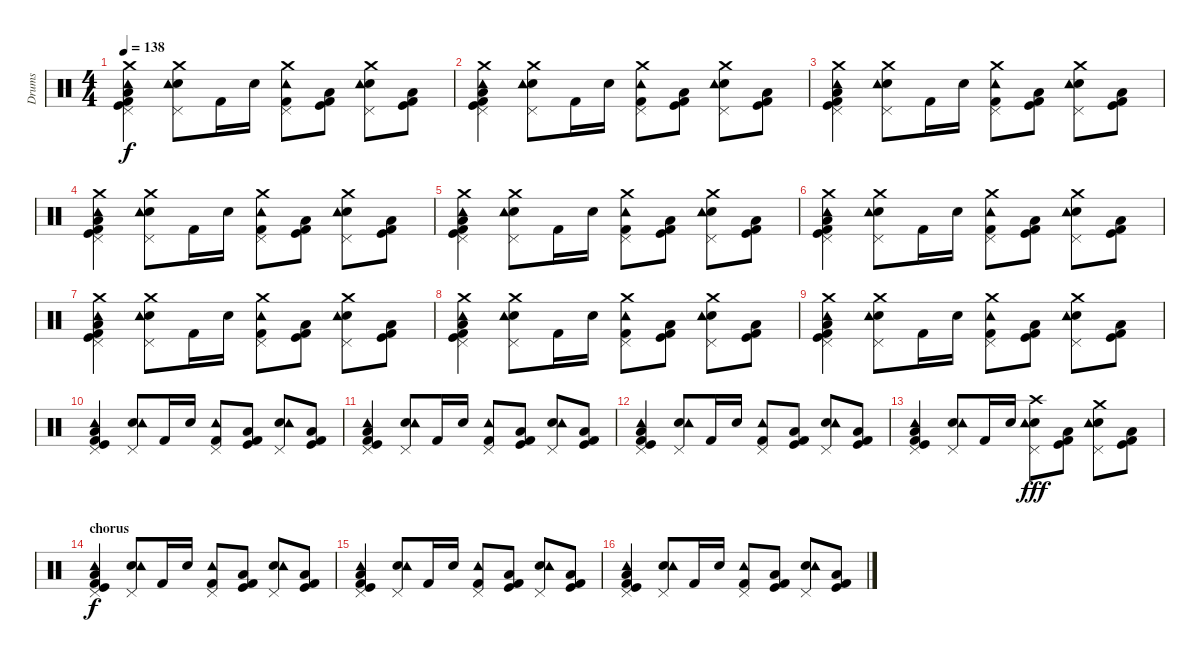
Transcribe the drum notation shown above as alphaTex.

\track ("Drums" "Drums") {instrument percussion}
\staff {score}
\articulation defaults
\ts (4 4)
\tempo 138
\clef neutral
\ks c
("Crash medium (hit)" "Pedal Hi-Hat (hit)" "Kick (hit) 2" "Kick (hit)" "Low Floor Tom (hit)" "Tambourine (hit)").4{dy f} ("Crash medium (hit)" "Pedal Hi-Hat (hit)" "Electric Snare (hit)" "Tambourine (hit)").8 "Kick (hit) 2".16 "Electric Snare (hit)".16 ("Crash medium (hit)" "Pedal Hi-Hat (hit)" "Kick (hit) 2" "Tambourine (hit)").8 ("Kick (hit) 2" "Kick (hit)" "Low Floor Tom (hit)").8 ("Crash medium (hit)" "Pedal Hi-Hat (hit)" "Electric Snare (hit)" "Tambourine (hit)").8 ("Kick (hit) 2" "Low Floor Tom (hit)" "Kick (hit)").8 |
("Crash medium (hit)" "Pedal Hi-Hat (hit)" "Kick (hit) 2" "Kick (hit)" "Low Floor Tom (hit)" "Tambourine (hit)").4 ("Crash medium (hit)" "Pedal Hi-Hat (hit)" "Electric Snare (hit)" "Tambourine (hit)").8 "Kick (hit) 2".16 "Electric Snare (hit)".16 ("Crash medium (hit)" "Pedal Hi-Hat (hit)" "Kick (hit) 2" "Tambourine (hit)").8 ("Kick (hit) 2" "Kick (hit)" "Low Floor Tom (hit)").8 ("Crash medium (hit)" "Pedal Hi-Hat (hit)" "Electric Snare (hit)" "Tambourine (hit)").8 ("Kick (hit) 2" "Low Floor Tom (hit)" "Kick (hit)").8 |
("Crash medium (hit)" "Pedal Hi-Hat (hit)" "Kick (hit) 2" "Kick (hit)" "Low Floor Tom (hit)" "Tambourine (hit)").4 ("Crash medium (hit)" "Pedal Hi-Hat (hit)" "Electric Snare (hit)" "Tambourine (hit)").8 "Kick (hit) 2".16 "Electric Snare (hit)".16 ("Crash medium (hit)" "Pedal Hi-Hat (hit)" "Kick (hit) 2" "Tambourine (hit)").8 ("Kick (hit) 2" "Kick (hit)" "Low Floor Tom (hit)").8 ("Crash medium (hit)" "Pedal Hi-Hat (hit)" "Electric Snare (hit)" "Tambourine (hit)").8 ("Kick (hit) 2" "Low Floor Tom (hit)" "Kick (hit)").8 |
("Crash medium (hit)" "Pedal Hi-Hat (hit)" "Kick (hit) 2" "Kick (hit)" "Low Floor Tom (hit)" "Tambourine (hit)").4 ("Crash medium (hit)" "Pedal Hi-Hat (hit)" "Electric Snare (hit)" "Tambourine (hit)").8 "Kick (hit) 2".16 "Electric Snare (hit)".16 ("Crash medium (hit)" "Pedal Hi-Hat (hit)" "Kick (hit) 2" "Tambourine (hit)").8 ("Kick (hit) 2" "Kick (hit)" "Low Floor Tom (hit)").8 ("Crash medium (hit)" "Pedal Hi-Hat (hit)" "Electric Snare (hit)" "Tambourine (hit)").8 ("Kick (hit) 2" "Low Floor Tom (hit)" "Kick (hit)").8 |
("Crash medium (hit)" "Pedal Hi-Hat (hit)" "Kick (hit) 2" "Kick (hit)" "Low Floor Tom (hit)" "Tambourine (hit)").4 ("Crash medium (hit)" "Pedal Hi-Hat (hit)" "Electric Snare (hit)" "Tambourine (hit)").8 "Kick (hit) 2".16 "Electric Snare (hit)".16 ("Crash medium (hit)" "Pedal Hi-Hat (hit)" "Kick (hit) 2" "Tambourine (hit)").8 ("Kick (hit) 2" "Kick (hit)" "Low Floor Tom (hit)").8 ("Crash medium (hit)" "Pedal Hi-Hat (hit)" "Electric Snare (hit)" "Tambourine (hit)").8 ("Kick (hit) 2" "Low Floor Tom (hit)" "Kick (hit)").8 |
("Crash medium (hit)" "Pedal Hi-Hat (hit)" "Kick (hit) 2" "Kick (hit)" "Low Floor Tom (hit)" "Tambourine (hit)").4 ("Crash medium (hit)" "Pedal Hi-Hat (hit)" "Electric Snare (hit)" "Tambourine (hit)").8 "Kick (hit) 2".16 "Electric Snare (hit)".16 ("Crash medium (hit)" "Pedal Hi-Hat (hit)" "Kick (hit) 2" "Tambourine (hit)").8 ("Kick (hit) 2" "Kick (hit)" "Low Floor Tom (hit)").8 ("Crash medium (hit)" "Pedal Hi-Hat (hit)" "Electric Snare (hit)" "Tambourine (hit)").8 ("Kick (hit) 2" "Low Floor Tom (hit)" "Kick (hit)").8 |
("Crash medium (hit)" "Pedal Hi-Hat (hit)" "Kick (hit) 2" "Kick (hit)" "Low Floor Tom (hit)" "Tambourine (hit)").4 ("Crash medium (hit)" "Pedal Hi-Hat (hit)" "Electric Snare (hit)" "Tambourine (hit)").8 "Kick (hit) 2".16 "Electric Snare (hit)".16 ("Crash medium (hit)" "Pedal Hi-Hat (hit)" "Kick (hit) 2" "Tambourine (hit)").8 ("Kick (hit) 2" "Kick (hit)" "Low Floor Tom (hit)").8 ("Crash medium (hit)" "Pedal Hi-Hat (hit)" "Electric Snare (hit)" "Tambourine (hit)").8 ("Kick (hit) 2" "Low Floor Tom (hit)" "Kick (hit)").8 |
("Crash medium (hit)" "Pedal Hi-Hat (hit)" "Kick (hit) 2" "Kick (hit)" "Low Floor Tom (hit)" "Tambourine (hit)").4 ("Crash medium (hit)" "Pedal Hi-Hat (hit)" "Electric Snare (hit)" "Tambourine (hit)").8 "Kick (hit) 2".16 "Electric Snare (hit)".16 ("Crash medium (hit)" "Pedal Hi-Hat (hit)" "Kick (hit) 2" "Tambourine (hit)").8 ("Kick (hit) 2" "Kick (hit)" "Low Floor Tom (hit)").8 ("Crash medium (hit)" "Pedal Hi-Hat (hit)" "Electric Snare (hit)" "Tambourine (hit)").8 ("Kick (hit) 2" "Low Floor Tom (hit)" "Kick (hit)").8 |
("Crash medium (hit)" "Pedal Hi-Hat (hit)" "Kick (hit) 2" "Kick (hit)" "Low Floor Tom (hit)" "Tambourine (hit)").4 ("Crash medium (hit)" "Pedal Hi-Hat (hit)" "Electric Snare (hit)" "Tambourine (hit)").8 "Kick (hit) 2".16 "Electric Snare (hit)".16 ("Crash medium (hit)" "Pedal Hi-Hat (hit)" "Kick (hit) 2" "Tambourine (hit)").8 ("Kick (hit) 2" "Kick (hit)" "Low Floor Tom (hit)").8 ("Crash medium (hit)" "Pedal Hi-Hat (hit)" "Electric Snare (hit)" "Tambourine (hit)").8 ("Kick (hit) 2" "Low Floor Tom (hit)" "Kick (hit)").8 |
("Pedal Hi-Hat (hit)" "Kick (hit) 2" "Kick (hit)" "Low Floor Tom (hit)" "Tambourine (hit)").4 ("Pedal Hi-Hat (hit)" "Electric Snare (hit)" "Tambourine (hit)").8 "Kick (hit) 2".16 "Electric Snare (hit)".16 ("Pedal Hi-Hat (hit)" "Kick (hit) 2" "Tambourine (hit)").8 ("Kick (hit) 2" "Kick (hit)" "Low Floor Tom (hit)").8 ("Pedal Hi-Hat (hit)" "Electric Snare (hit)" "Tambourine (hit)").8 ("Kick (hit) 2" "Low Floor Tom (hit)" "Kick (hit)").8 |
("Pedal Hi-Hat (hit)" "Kick (hit) 2" "Kick (hit)" "Low Floor Tom (hit)" "Tambourine (hit)").4 ("Pedal Hi-Hat (hit)" "Electric Snare (hit)" "Tambourine (hit)").8 "Kick (hit) 2".16 "Electric Snare (hit)".16 ("Pedal Hi-Hat (hit)" "Kick (hit) 2" "Tambourine (hit)").8 ("Kick (hit) 2" "Kick (hit)" "Low Floor Tom (hit)").8 ("Pedal Hi-Hat (hit)" "Electric Snare (hit)" "Tambourine (hit)").8 ("Kick (hit) 2" "Low Floor Tom (hit)" "Kick (hit)").8 |
("Pedal Hi-Hat (hit)" "Kick (hit) 2" "Kick (hit)" "Low Floor Tom (hit)" "Tambourine (hit)").4 ("Pedal Hi-Hat (hit)" "Electric Snare (hit)" "Tambourine (hit)").8 "Kick (hit) 2".16 "Electric Snare (hit)".16 ("Pedal Hi-Hat (hit)" "Kick (hit) 2" "Tambourine (hit)").8 ("Kick (hit) 2" "Kick (hit)" "Low Floor Tom (hit)").8 ("Pedal Hi-Hat (hit)" "Electric Snare (hit)" "Tambourine (hit)").8 ("Kick (hit) 2" "Low Floor Tom (hit)" "Kick (hit)").8 |
("Pedal Hi-Hat (hit)" "Kick (hit) 2" "Kick (hit)" "Low Floor Tom (hit)" "Tambourine (hit)").4 ("Pedal Hi-Hat (hit)" "Electric Snare (hit)" "Tambourine (hit)").8 "Kick (hit) 2".16 "Electric Snare (hit)".16 ("Crash high (hit)" "Pedal Hi-Hat (hit)" "Electric Snare (hit)" "Tambourine (hit)").8{dy fff} ("Kick (hit) 2" "Kick (hit)" "Low Floor Tom (hit)").8 ("Crash medium (hit)" "Pedal Hi-Hat (hit)" "Electric Snare (hit)" "Tambourine (hit)").8 ("Kick (hit) 2" "Low Floor Tom (hit)" "Kick (hit)").8 |
\section ("" "chorus")
("Pedal Hi-Hat (hit)" "Kick (hit) 2" "Kick (hit)" "Low Floor Tom (hit)" "Tambourine (hit)").4{dy f} ("Pedal Hi-Hat (hit)" "Electric Snare (hit)" "Tambourine (hit)").8 "Kick (hit) 2".16 "Electric Snare (hit)".16 ("Pedal Hi-Hat (hit)" "Kick (hit) 2" "Tambourine (hit)").8 ("Kick (hit) 2" "Kick (hit)" "Low Floor Tom (hit)").8 ("Pedal Hi-Hat (hit)" "Electric Snare (hit)" "Tambourine (hit)").8 ("Kick (hit) 2" "Low Floor Tom (hit)" "Kick (hit)").8 |
("Pedal Hi-Hat (hit)" "Kick (hit) 2" "Kick (hit)" "Low Floor Tom (hit)" "Tambourine (hit)").4 ("Pedal Hi-Hat (hit)" "Electric Snare (hit)" "Tambourine (hit)").8 "Kick (hit) 2".16 "Electric Snare (hit)".16 ("Pedal Hi-Hat (hit)" "Kick (hit) 2" "Tambourine (hit)").8 ("Kick (hit) 2" "Kick (hit)" "Low Floor Tom (hit)").8 ("Pedal Hi-Hat (hit)" "Electric Snare (hit)" "Tambourine (hit)").8 ("Kick (hit) 2" "Low Floor Tom (hit)" "Kick (hit)").8 |
("Pedal Hi-Hat (hit)" "Kick (hit) 2" "Kick (hit)" "Low Floor Tom (hit)" "Tambourine (hit)").4 ("Pedal Hi-Hat (hit)" "Electric Snare (hit)" "Tambourine (hit)").8 "Kick (hit) 2".16 "Electric Snare (hit)".16 ("Pedal Hi-Hat (hit)" "Kick (hit) 2" "Tambourine (hit)").8 ("Kick (hit) 2" "Kick (hit)" "Low Floor Tom (hit)").8 ("Pedal Hi-Hat (hit)" "Electric Snare (hit)" "Tambourine (hit)").8 ("Kick (hit) 2" "Low Floor Tom (hit)" "Kick (hit)").8
